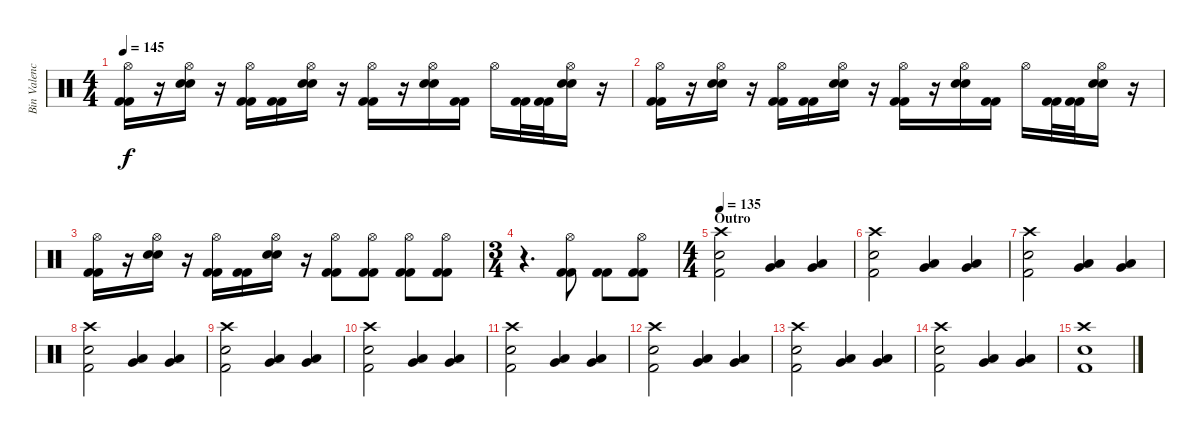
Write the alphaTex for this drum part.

\track ("Bin Valencia (Bateria)" "Bin Valenc") {instrument percussion}
\staff {score}
\articulation defaults
\ts (4 4)
\tempo 145
\clef neutral
\ks c
("Hi-Hat (open)" "Kick (hit) 2" "Kick (hit) 2").16{dy f} r.16 ("Hi-Hat (open)" "Snare (hit) 2" "Snare (hit) 2").16 r.16 ("Hi-Hat (open)" "Kick (hit) 2" "Kick (hit) 2").16 ("Kick (hit) 2" "Kick (hit) 2").16 ("Hi-Hat (open)" "Snare (hit) 2" "Snare (hit) 2").16 r.16 ("Hi-Hat (open)" "Kick (hit) 2" "Kick (hit) 2").16 r.16 ("Hi-Hat (open)" "Snare (hit) 2" "Snare (hit) 2").16 ("Kick (hit) 2" "Kick (hit) 2").16 "Hi-Hat (open)".16 ("Kick (hit) 2" "Kick (hit) 2").32 ("Kick (hit) 2" "Kick (hit) 2").32 ("Hi-Hat (open)" "Snare (hit) 2" "Snare (hit) 2").16 r.16 |
("Hi-Hat (open)" "Kick (hit) 2" "Kick (hit) 2").16 r.16 ("Hi-Hat (open)" "Snare (hit) 2" "Snare (hit) 2").16 r.16 ("Hi-Hat (open)" "Kick (hit) 2" "Kick (hit) 2").16 ("Kick (hit) 2" "Kick (hit) 2").16 ("Hi-Hat (open)" "Snare (hit) 2" "Snare (hit) 2").16 r.16 ("Hi-Hat (open)" "Kick (hit) 2" "Kick (hit) 2").16 r.16 ("Hi-Hat (open)" "Snare (hit) 2" "Snare (hit) 2").16 ("Kick (hit) 2" "Kick (hit) 2").16 "Hi-Hat (open)".16 ("Kick (hit) 2" "Kick (hit) 2").32 ("Kick (hit) 2" "Kick (hit) 2").32 ("Hi-Hat (open)" "Snare (hit) 2" "Snare (hit) 2").16 r.16 |
("Hi-Hat (open)" "Kick (hit) 2" "Kick (hit) 2").16 r.16 ("Hi-Hat (open)" "Snare (hit) 2" "Snare (hit) 2").16 r.16 ("Hi-Hat (open)" "Kick (hit) 2" "Kick (hit) 2").16 ("Kick (hit) 2" "Kick (hit) 2").16 ("Hi-Hat (open)" "Snare (hit) 2" "Snare (hit) 2").16 r.16 ("Hi-Hat (open)" "Kick (hit) 2" "Kick (hit) 2").8 ("Hi-Hat (open)" "Kick (hit) 2" "Kick (hit) 2").8 ("Hi-Hat (open)" "Kick (hit) 2" "Kick (hit) 2").8 ("Hi-Hat (open)" "Kick (hit) 2" "Kick (hit) 2").8 |
\ts (3 4)
r.4{d} ("Hi-Hat (open)" "Kick (hit) 2" "Kick (hit) 2").8 ("Kick (hit) 2" "Kick (hit) 2").8 ("Hi-Hat (open)" "Kick (hit) 2" "Kick (hit) 2").8 |
\ts (4 4)
\section ("" "Outro")
\tempo 135
("Crash high (hit)" "Snare (hit) 2" "Kick (hit) 2").2{volume 13} ("Low Tom (hit)" "Very Low Tom (hit)").4 ("Low Tom (hit)" "Very Low Tom (hit)").4 |
("Crash high (hit)" "Snare (hit) 2" "Kick (hit) 2").2 ("Low Tom (hit)" "Very Low Tom (hit)").4 ("Low Tom (hit)" "Very Low Tom (hit)").4 |
("Crash high (hit)" "Snare (hit) 2" "Kick (hit) 2").2{volume 11} ("Low Tom (hit)" "Very Low Tom (hit)").4 ("Low Tom (hit)" "Very Low Tom (hit)").4 |
("Crash high (hit)" "Snare (hit) 2" "Kick (hit) 2").2 ("Low Tom (hit)" "Very Low Tom (hit)").4 ("Low Tom (hit)" "Very Low Tom (hit)").4 |
("Crash high (hit)" "Snare (hit) 2" "Kick (hit) 2").2{volume 9} ("Low Tom (hit)" "Very Low Tom (hit)").4 ("Low Tom (hit)" "Very Low Tom (hit)").4 |
("Crash high (hit)" "Snare (hit) 2" "Kick (hit) 2").2{volume 6} ("Low Tom (hit)" "Very Low Tom (hit)").4 ("Low Tom (hit)" "Very Low Tom (hit)").4 |
("Crash high (hit)" "Snare (hit) 2" "Kick (hit) 2").2{volume 4} ("Low Tom (hit)" "Very Low Tom (hit)").4 ("Low Tom (hit)" "Very Low Tom (hit)").4 |
("Crash high (hit)" "Snare (hit) 2" "Kick (hit) 2").2{volume 3} ("Low Tom (hit)" "Very Low Tom (hit)").4 ("Low Tom (hit)" "Very Low Tom (hit)").4 |
("Crash high (hit)" "Snare (hit) 2" "Kick (hit) 2").2{volume 2} ("Low Tom (hit)" "Very Low Tom (hit)").4 ("Low Tom (hit)" "Very Low Tom (hit)").4 |
("Crash high (hit)" "Snare (hit) 2" "Kick (hit) 2").2{volume 1} ("Low Tom (hit)" "Very Low Tom (hit)").4 ("Low Tom (hit)" "Very Low Tom (hit)").4 |
("Crash high (hit)" "Snare (hit) 2" "Kick (hit) 2").1{volume 0}
